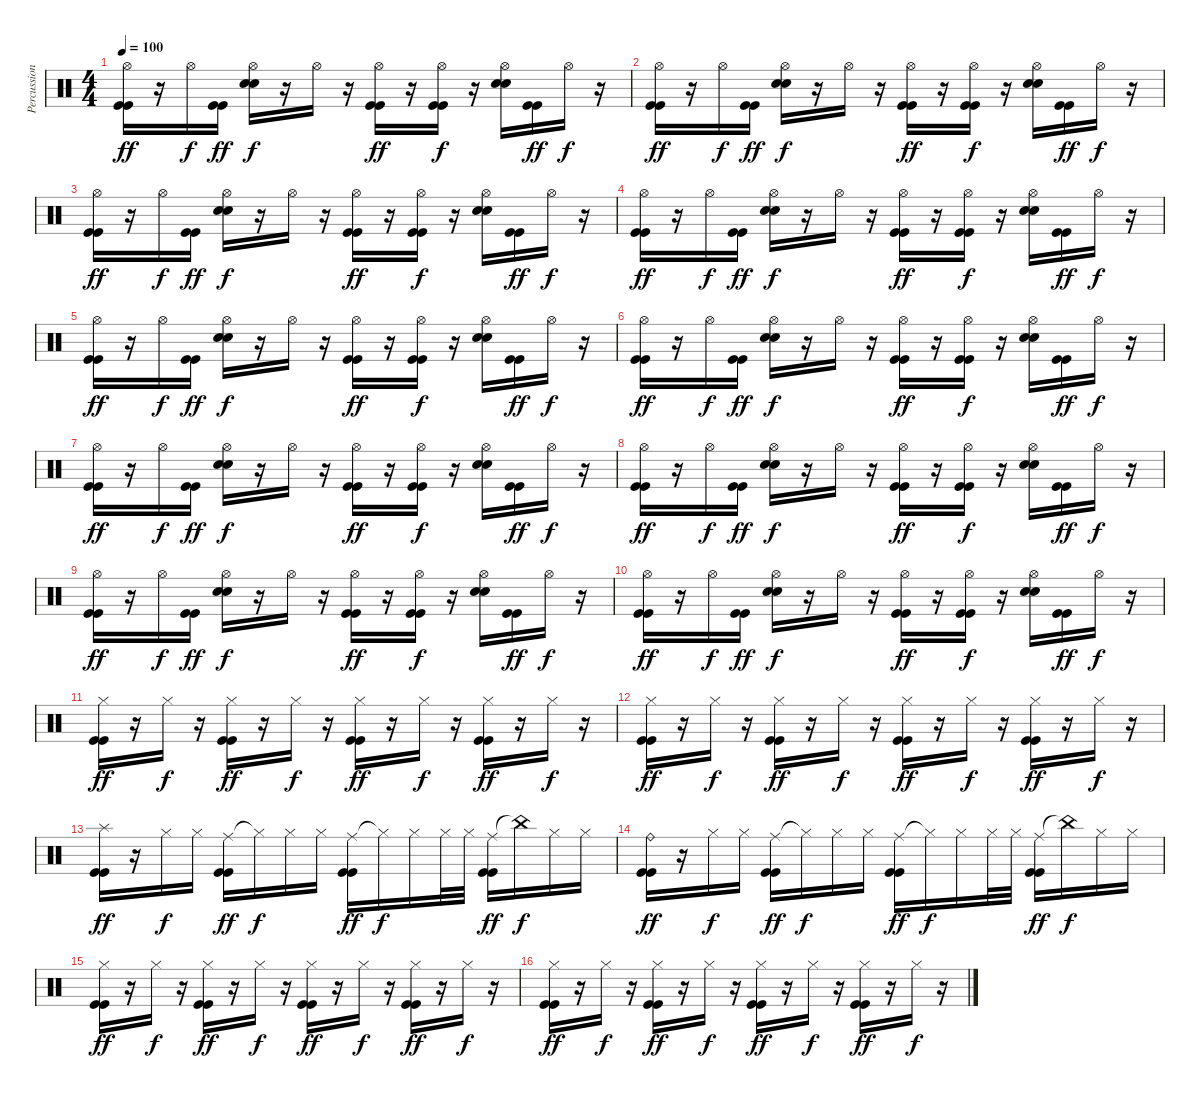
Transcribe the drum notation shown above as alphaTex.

\track ("Percussions" "Percussion") {instrument percussion}
\staff {score}
\articulation defaults
\ts (4 4)
\tempo 100
\clef neutral
\ks c
("Hi-Hat (open)" "Kick (hit)" "Kick (hit)").16{dy ff} r.16 "Hi-Hat (open)".16{dy f} ("Kick (hit)" "Kick (hit)").16{dy ff} ("Hi-Hat (open)" "Electric Snare (hit)" "Electric Snare (hit)").16{dy f} r.16 "Hi-Hat (open)".16 r.16 ("Hi-Hat (open)" "Kick (hit)" "Kick (hit)").16{dy ff} r.16 ("Hi-Hat (open)" "Kick (hit)" "Kick (hit)").16{dy f} r.16 ("Hi-Hat (open)" "Electric Snare (hit)" "Electric Snare (hit)").16 ("Kick (hit)" "Kick (hit)").16{dy ff} "Hi-Hat (open)".16{dy f} r.16 |
("Hi-Hat (open)" "Kick (hit)" "Kick (hit)").16{dy ff} r.16 "Hi-Hat (open)".16{dy f} ("Kick (hit)" "Kick (hit)").16{dy ff} ("Hi-Hat (open)" "Electric Snare (hit)" "Electric Snare (hit)").16{dy f} r.16 "Hi-Hat (open)".16 r.16 ("Hi-Hat (open)" "Kick (hit)" "Kick (hit)").16{dy ff} r.16 ("Hi-Hat (open)" "Kick (hit)" "Kick (hit)").16{dy f} r.16 ("Hi-Hat (open)" "Electric Snare (hit)" "Electric Snare (hit)").16 ("Kick (hit)" "Kick (hit)").16{dy ff} "Hi-Hat (open)".16{dy f} r.16 |
("Hi-Hat (open)" "Kick (hit)" "Kick (hit)").16{dy ff} r.16 "Hi-Hat (open)".16{dy f} ("Kick (hit)" "Kick (hit)").16{dy ff} ("Hi-Hat (open)" "Electric Snare (hit)" "Electric Snare (hit)").16{dy f} r.16 "Hi-Hat (open)".16 r.16 ("Hi-Hat (open)" "Kick (hit)" "Kick (hit)").16{dy ff} r.16 ("Hi-Hat (open)" "Kick (hit)" "Kick (hit)").16{dy f} r.16 ("Hi-Hat (open)" "Electric Snare (hit)" "Electric Snare (hit)").16 ("Kick (hit)" "Kick (hit)").16{dy ff} "Hi-Hat (open)".16{dy f} r.16 |
("Hi-Hat (open)" "Kick (hit)" "Kick (hit)").16{dy ff} r.16 "Hi-Hat (open)".16{dy f} ("Kick (hit)" "Kick (hit)").16{dy ff} ("Hi-Hat (open)" "Electric Snare (hit)" "Electric Snare (hit)").16{dy f} r.16 "Hi-Hat (open)".16 r.16 ("Hi-Hat (open)" "Kick (hit)" "Kick (hit)").16{dy ff} r.16 ("Hi-Hat (open)" "Kick (hit)" "Kick (hit)").16{dy f} r.16 ("Hi-Hat (open)" "Electric Snare (hit)" "Electric Snare (hit)").16 ("Kick (hit)" "Kick (hit)").16{dy ff} "Hi-Hat (open)".16{dy f} r.16 |
("Hi-Hat (open)" "Kick (hit)" "Kick (hit)").16{dy ff} r.16 "Hi-Hat (open)".16{dy f} ("Kick (hit)" "Kick (hit)").16{dy ff} ("Hi-Hat (open)" "Electric Snare (hit)" "Electric Snare (hit)").16{dy f} r.16 "Hi-Hat (open)".16 r.16 ("Hi-Hat (open)" "Kick (hit)" "Kick (hit)").16{dy ff} r.16 ("Hi-Hat (open)" "Kick (hit)" "Kick (hit)").16{dy f} r.16 ("Hi-Hat (open)" "Electric Snare (hit)" "Electric Snare (hit)").16 ("Kick (hit)" "Kick (hit)").16{dy ff} "Hi-Hat (open)".16{dy f} r.16 |
("Hi-Hat (open)" "Kick (hit)" "Kick (hit)").16{dy ff} r.16 "Hi-Hat (open)".16{dy f} ("Kick (hit)" "Kick (hit)").16{dy ff} ("Hi-Hat (open)" "Electric Snare (hit)" "Electric Snare (hit)").16{dy f} r.16 "Hi-Hat (open)".16 r.16 ("Hi-Hat (open)" "Kick (hit)" "Kick (hit)").16{dy ff} r.16 ("Hi-Hat (open)" "Kick (hit)" "Kick (hit)").16{dy f} r.16 ("Hi-Hat (open)" "Electric Snare (hit)" "Electric Snare (hit)").16 ("Kick (hit)" "Kick (hit)").16{dy ff} "Hi-Hat (open)".16{dy f} r.16 |
("Hi-Hat (open)" "Kick (hit)" "Kick (hit)").16{dy ff} r.16 "Hi-Hat (open)".16{dy f} ("Kick (hit)" "Kick (hit)").16{dy ff} ("Hi-Hat (open)" "Electric Snare (hit)" "Electric Snare (hit)").16{dy f} r.16 "Hi-Hat (open)".16 r.16 ("Hi-Hat (open)" "Kick (hit)" "Kick (hit)").16{dy ff} r.16 ("Hi-Hat (open)" "Kick (hit)" "Kick (hit)").16{dy f} r.16 ("Hi-Hat (open)" "Electric Snare (hit)" "Electric Snare (hit)").16 ("Kick (hit)" "Kick (hit)").16{dy ff} "Hi-Hat (open)".16{dy f} r.16 |
("Hi-Hat (open)" "Kick (hit)" "Kick (hit)").16{dy ff} r.16 "Hi-Hat (open)".16{dy f} ("Kick (hit)" "Kick (hit)").16{dy ff} ("Hi-Hat (open)" "Electric Snare (hit)" "Electric Snare (hit)").16{dy f} r.16 "Hi-Hat (open)".16 r.16 ("Hi-Hat (open)" "Kick (hit)" "Kick (hit)").16{dy ff} r.16 ("Hi-Hat (open)" "Kick (hit)" "Kick (hit)").16{dy f} r.16 ("Hi-Hat (open)" "Electric Snare (hit)" "Electric Snare (hit)").16 ("Kick (hit)" "Kick (hit)").16{dy ff} "Hi-Hat (open)".16{dy f} r.16 |
("Hi-Hat (open)" "Kick (hit)" "Kick (hit)").16{dy ff} r.16 "Hi-Hat (open)".16{dy f} ("Kick (hit)" "Kick (hit)").16{dy ff} ("Hi-Hat (open)" "Electric Snare (hit)" "Electric Snare (hit)").16{dy f} r.16 "Hi-Hat (open)".16 r.16 ("Hi-Hat (open)" "Kick (hit)" "Kick (hit)").16{dy ff} r.16 ("Hi-Hat (open)" "Kick (hit)" "Kick (hit)").16{dy f} r.16 ("Hi-Hat (open)" "Electric Snare (hit)" "Electric Snare (hit)").16 ("Kick (hit)" "Kick (hit)").16{dy ff} "Hi-Hat (open)".16{dy f} r.16 |
("Hi-Hat (open)" "Kick (hit)" "Kick (hit)").16{dy ff} r.16 "Hi-Hat (open)".16{dy f} ("Kick (hit)" "Kick (hit)").16{dy ff} ("Hi-Hat (open)" "Electric Snare (hit)" "Electric Snare (hit)").16{dy f} r.16 "Hi-Hat (open)".16 r.16 ("Hi-Hat (open)" "Kick (hit)" "Kick (hit)").16{dy ff} r.16 ("Hi-Hat (open)" "Kick (hit)" "Kick (hit)").16{dy f} r.16 ("Hi-Hat (open)" "Electric Snare (hit)" "Electric Snare (hit)").16 ("Kick (hit)" "Kick (hit)").16{dy ff} "Hi-Hat (open)".16{dy f} r.16 |
("Hi-Hat (closed)" "Kick (hit)" "Kick (hit)").16{dy ff} r.16 "Hi-Hat (closed)".16{dy f} r.16 ("Hi-Hat (closed)" "Kick (hit)" "Kick (hit)").16{dy ff} r.16 "Hi-Hat (closed)".16{dy f} r.16 ("Hi-Hat (closed)" "Kick (hit)" "Kick (hit)").16{dy ff} r.16 "Hi-Hat (closed)".16{dy f} r.16 ("Hi-Hat (closed)" "Kick (hit)" "Kick (hit)").16{dy ff} r.16 "Hi-Hat (closed)".16{dy f} r.16 |
("Hi-Hat (closed)" "Kick (hit)" "Kick (hit)").16{dy ff} r.16 "Hi-Hat (closed)".16{dy f} r.16 ("Hi-Hat (closed)" "Kick (hit)" "Kick (hit)").16{dy ff} r.16 "Hi-Hat (closed)".16{dy f} r.16 ("Hi-Hat (closed)" "Kick (hit)" "Kick (hit)").16{dy ff} r.16 "Hi-Hat (closed)".16{dy f} r.16 ("Hi-Hat (closed)" "Kick (hit)" "Kick (hit)").16{dy ff} r.16 "Hi-Hat (closed)".16{dy f} r.16 |
("Splash (hit)" "Kick (hit)" "Kick (hit)").16{dy ff} r.16 "Hi-Hat (closed)".16{dy f} "Hi-Hat (closed)".16 ("Ride (middle)" "Kick (hit)" "Kick (hit)").16{dy ff} "Hi-Hat (closed)"{t}.16{dy f} "Hi-Hat (closed)".16 "Hi-Hat (closed)".16 ("Ride (middle)" "Kick (hit)" "Kick (hit)").16{dy ff} "Hi-Hat (closed)"{t}.16{dy f} "Hi-Hat (closed)".16 "Hi-Hat (closed)".32 "Hi-Hat (closed)".32 ("Ride (middle)" "Kick (hit)" "Kick (hit)").16{dy ff} "China (hit)"{t}.16{dy f} "Hi-Hat (closed)".16 "Hi-Hat (closed)".16 |
("Ride (bell)" "Kick (hit)" "Kick (hit)").16{dy ff} r.16 "Hi-Hat (closed)".16{dy f} "Hi-Hat (closed)".16 ("Ride (middle)" "Kick (hit)" "Kick (hit)").16{dy ff} "Hi-Hat (closed)"{t}.16{dy f} "Hi-Hat (closed)".16 "Hi-Hat (closed)".16 ("Ride (middle)" "Kick (hit)" "Kick (hit)").16{dy ff} "Hi-Hat (closed)"{t}.16{dy f} "Hi-Hat (closed)".16 "Hi-Hat (closed)".32 "Hi-Hat (closed)".32 ("Ride (middle)" "Kick (hit)" "Kick (hit)").16{dy ff} "China (hit)"{t}.16{dy f} "Hi-Hat (closed)".16 "Hi-Hat (closed)".16 |
("Hi-Hat (closed)" "Kick (hit)" "Kick (hit)").16{dy ff} r.16 "Hi-Hat (closed)".16{dy f} r.16 ("Hi-Hat (closed)" "Kick (hit)" "Kick (hit)").16{dy ff} r.16 "Hi-Hat (closed)".16{dy f} r.16 ("Hi-Hat (closed)" "Kick (hit)" "Kick (hit)").16{dy ff} r.16 "Hi-Hat (closed)".16{dy f} r.16 ("Hi-Hat (closed)" "Kick (hit)" "Kick (hit)").16{dy ff} r.16 "Hi-Hat (closed)".16{dy f} r.16 |
("Hi-Hat (closed)" "Kick (hit)" "Kick (hit)").16{dy ff} r.16 "Hi-Hat (closed)".16{dy f} r.16 ("Hi-Hat (closed)" "Kick (hit)" "Kick (hit)").16{dy ff} r.16 "Hi-Hat (closed)".16{dy f} r.16 ("Hi-Hat (closed)" "Kick (hit)" "Kick (hit)").16{dy ff} r.16 "Hi-Hat (closed)".16{dy f} r.16 ("Hi-Hat (closed)" "Kick (hit)" "Kick (hit)").16{dy ff} r.16 "Hi-Hat (closed)".16{dy f} r.16
